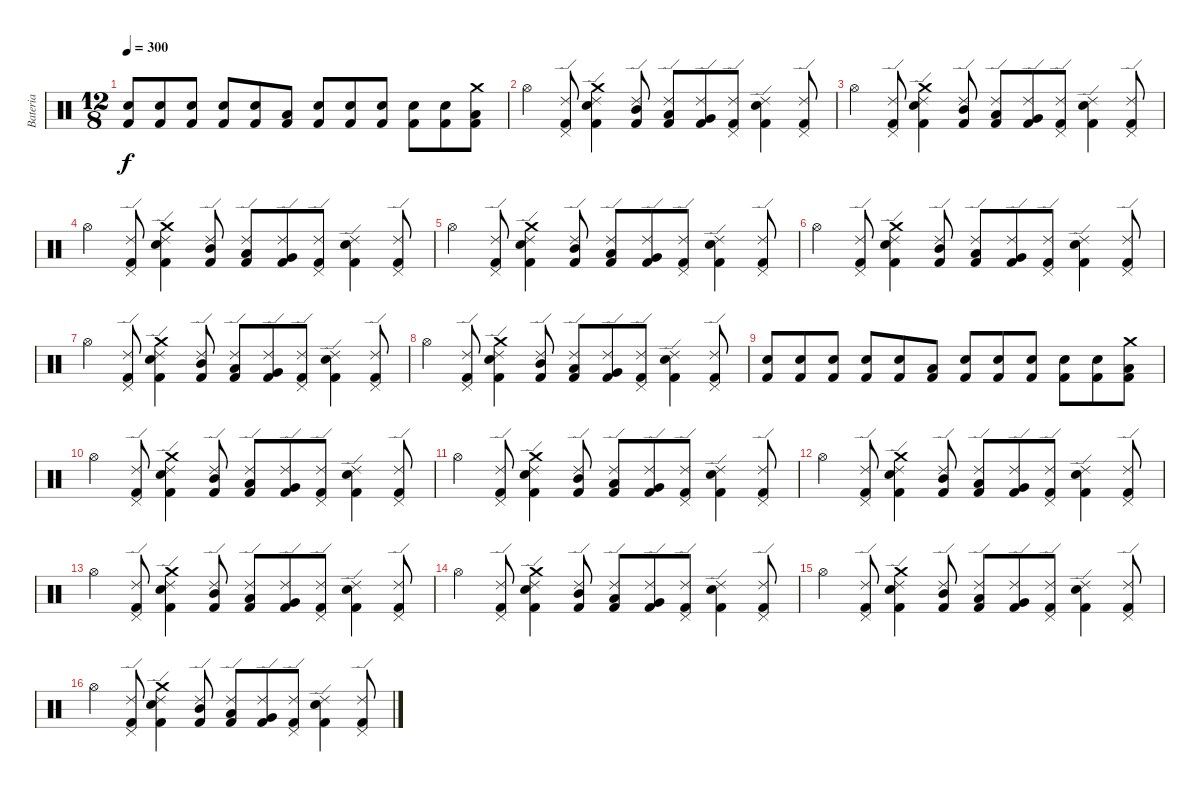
\track ("Bateria" "Bateria") {instrument percussion}
\staff {score}
\articulation defaults
\ts (12 8)
\tempo 300
\clef neutral
\ks c
("Snare (hit) 2" "Kick (hit) 2").8{dy f} ("Snare (hit) 2" "Kick (hit) 2").8 ("Snare (hit) 2" "Kick (hit) 2").8 ("Snare (hit) 2" "Kick (hit) 2").8 ("Snare (hit) 2" "Kick (hit) 2").8 ("Low Tom (hit)" "Kick (hit) 2").8 ("Snare (hit) 2" "Kick (hit) 2").8 ("Snare (hit) 2" "Kick (hit) 2").8 ("Snare (hit) 2" "Kick (hit) 2").8 ("Snare (hit) 2" "Kick (hit) 2").8 ("Snare (hit) 2" "Kick (hit) 2").8 ("Crash medium (hit)" "Low Tom (hit)" "Kick (hit) 2").8 |
"Hi-Hat (open)".4 ("Ride (edge) 2" "Pedal Hi-Hat (hit)" "Kick (hit) 2").8 ("Ride (edge) 2" "Crash medium (hit)" "Snare (hit) 2" "Kick (hit) 2").4 ("Ride (edge) 2" "Mid Tom (hit)" "Kick (hit) 2").8 ("Ride (edge) 2" "Low Tom (hit)" "Kick (hit) 2").8 ("Ride (edge) 2" "Very Low Tom (hit)" "Kick (hit) 2").8 ("Ride (edge) 2" "Pedal Hi-Hat (hit)" "Kick (hit) 2").8 ("Ride (edge) 2" "Snare (hit) 2" "Kick (hit) 2").4 ("Ride (edge) 2" "Pedal Hi-Hat (hit)" "Kick (hit) 2").8 |
"Hi-Hat (open)".4 ("Ride (edge) 2" "Pedal Hi-Hat (hit)" "Kick (hit) 2").8 ("Ride (edge) 2" "Crash medium (hit)" "Snare (hit) 2" "Kick (hit) 2").4 ("Ride (edge) 2" "Mid Tom (hit)" "Kick (hit) 2").8 ("Ride (edge) 2" "Low Tom (hit)" "Kick (hit) 2").8 ("Ride (edge) 2" "Very Low Tom (hit)" "Kick (hit) 2").8 ("Ride (edge) 2" "Pedal Hi-Hat (hit)" "Kick (hit) 2").8 ("Ride (edge) 2" "Snare (hit) 2" "Kick (hit) 2").4 ("Ride (edge) 2" "Pedal Hi-Hat (hit)" "Kick (hit) 2").8 |
"Hi-Hat (open)".4 ("Ride (edge) 2" "Pedal Hi-Hat (hit)" "Kick (hit) 2").8 ("Ride (edge) 2" "Crash medium (hit)" "Snare (hit) 2" "Kick (hit) 2").4 ("Ride (edge) 2" "Mid Tom (hit)" "Kick (hit) 2").8 ("Ride (edge) 2" "Low Tom (hit)" "Kick (hit) 2").8 ("Ride (edge) 2" "Very Low Tom (hit)" "Kick (hit) 2").8 ("Ride (edge) 2" "Pedal Hi-Hat (hit)" "Kick (hit) 2").8 ("Ride (edge) 2" "Snare (hit) 2" "Kick (hit) 2").4 ("Ride (edge) 2" "Pedal Hi-Hat (hit)" "Kick (hit) 2").8 |
"Hi-Hat (open)".4 ("Ride (edge) 2" "Pedal Hi-Hat (hit)" "Kick (hit) 2").8 ("Ride (edge) 2" "Crash medium (hit)" "Snare (hit) 2" "Kick (hit) 2").4 ("Ride (edge) 2" "Mid Tom (hit)" "Kick (hit) 2").8 ("Ride (edge) 2" "Low Tom (hit)" "Kick (hit) 2").8 ("Ride (edge) 2" "Very Low Tom (hit)" "Kick (hit) 2").8 ("Ride (edge) 2" "Pedal Hi-Hat (hit)" "Kick (hit) 2").8 ("Ride (edge) 2" "Snare (hit) 2" "Kick (hit) 2").4 ("Ride (edge) 2" "Pedal Hi-Hat (hit)" "Kick (hit) 2").8 |
"Hi-Hat (open)".4 ("Ride (edge) 2" "Pedal Hi-Hat (hit)" "Kick (hit) 2").8 ("Ride (edge) 2" "Crash medium (hit)" "Snare (hit) 2" "Kick (hit) 2").4 ("Ride (edge) 2" "Mid Tom (hit)" "Kick (hit) 2").8 ("Ride (edge) 2" "Low Tom (hit)" "Kick (hit) 2").8 ("Ride (edge) 2" "Very Low Tom (hit)" "Kick (hit) 2").8 ("Ride (edge) 2" "Pedal Hi-Hat (hit)" "Kick (hit) 2").8 ("Ride (edge) 2" "Snare (hit) 2" "Kick (hit) 2").4 ("Ride (edge) 2" "Pedal Hi-Hat (hit)" "Kick (hit) 2").8 |
"Hi-Hat (open)".4 ("Ride (edge) 2" "Pedal Hi-Hat (hit)" "Kick (hit) 2").8 ("Ride (edge) 2" "Crash medium (hit)" "Snare (hit) 2" "Kick (hit) 2").4 ("Ride (edge) 2" "Mid Tom (hit)" "Kick (hit) 2").8 ("Ride (edge) 2" "Low Tom (hit)" "Kick (hit) 2").8 ("Ride (edge) 2" "Very Low Tom (hit)" "Kick (hit) 2").8 ("Ride (edge) 2" "Pedal Hi-Hat (hit)" "Kick (hit) 2").8 ("Ride (edge) 2" "Snare (hit) 2" "Kick (hit) 2").4 ("Ride (edge) 2" "Pedal Hi-Hat (hit)" "Kick (hit) 2").8 |
"Hi-Hat (open)".4 ("Ride (edge) 2" "Pedal Hi-Hat (hit)" "Kick (hit) 2").8 ("Ride (edge) 2" "Crash medium (hit)" "Snare (hit) 2" "Kick (hit) 2").4 ("Ride (edge) 2" "Mid Tom (hit)" "Kick (hit) 2").8 ("Ride (edge) 2" "Low Tom (hit)" "Kick (hit) 2").8 ("Ride (edge) 2" "Very Low Tom (hit)" "Kick (hit) 2").8 ("Ride (edge) 2" "Pedal Hi-Hat (hit)" "Kick (hit) 2").8 ("Ride (edge) 2" "Snare (hit) 2" "Kick (hit) 2").4 ("Ride (edge) 2" "Pedal Hi-Hat (hit)" "Kick (hit) 2").8 |
("Snare (hit) 2" "Kick (hit) 2").8 ("Snare (hit) 2" "Kick (hit) 2").8 ("Snare (hit) 2" "Kick (hit) 2").8 ("Snare (hit) 2" "Kick (hit) 2").8 ("Snare (hit) 2" "Kick (hit) 2").8 ("Low Tom (hit)" "Kick (hit) 2").8 ("Snare (hit) 2" "Kick (hit) 2").8 ("Snare (hit) 2" "Kick (hit) 2").8 ("Snare (hit) 2" "Kick (hit) 2").8 ("Snare (hit) 2" "Kick (hit) 2").8 ("Snare (hit) 2" "Kick (hit) 2").8 ("Crash medium (hit)" "Low Tom (hit)" "Kick (hit) 2").8 |
"Hi-Hat (open)".4 ("Ride (edge) 2" "Pedal Hi-Hat (hit)" "Kick (hit) 2").8 ("Ride (edge) 2" "Crash medium (hit)" "Snare (hit) 2" "Kick (hit) 2").4 ("Ride (edge) 2" "Mid Tom (hit)" "Kick (hit) 2").8 ("Ride (edge) 2" "Low Tom (hit)" "Kick (hit) 2").8 ("Ride (edge) 2" "Very Low Tom (hit)" "Kick (hit) 2").8 ("Ride (edge) 2" "Pedal Hi-Hat (hit)" "Kick (hit) 2").8 ("Ride (edge) 2" "Snare (hit) 2" "Kick (hit) 2").4 ("Ride (edge) 2" "Pedal Hi-Hat (hit)" "Kick (hit) 2").8 |
"Hi-Hat (open)".4 ("Ride (edge) 2" "Pedal Hi-Hat (hit)" "Kick (hit) 2").8 ("Ride (edge) 2" "Crash medium (hit)" "Snare (hit) 2" "Kick (hit) 2").4 ("Ride (edge) 2" "Mid Tom (hit)" "Kick (hit) 2").8 ("Ride (edge) 2" "Low Tom (hit)" "Kick (hit) 2").8 ("Ride (edge) 2" "Very Low Tom (hit)" "Kick (hit) 2").8 ("Ride (edge) 2" "Pedal Hi-Hat (hit)" "Kick (hit) 2").8 ("Ride (edge) 2" "Snare (hit) 2" "Kick (hit) 2").4 ("Ride (edge) 2" "Pedal Hi-Hat (hit)" "Kick (hit) 2").8 |
"Hi-Hat (open)".4 ("Ride (edge) 2" "Pedal Hi-Hat (hit)" "Kick (hit) 2").8 ("Ride (edge) 2" "Crash medium (hit)" "Snare (hit) 2" "Kick (hit) 2").4 ("Ride (edge) 2" "Mid Tom (hit)" "Kick (hit) 2").8 ("Ride (edge) 2" "Low Tom (hit)" "Kick (hit) 2").8 ("Ride (edge) 2" "Very Low Tom (hit)" "Kick (hit) 2").8 ("Ride (edge) 2" "Pedal Hi-Hat (hit)" "Kick (hit) 2").8 ("Ride (edge) 2" "Snare (hit) 2" "Kick (hit) 2").4 ("Ride (edge) 2" "Pedal Hi-Hat (hit)" "Kick (hit) 2").8 |
"Hi-Hat (open)".4 ("Ride (edge) 2" "Pedal Hi-Hat (hit)" "Kick (hit) 2").8 ("Ride (edge) 2" "Crash medium (hit)" "Snare (hit) 2" "Kick (hit) 2").4 ("Ride (edge) 2" "Mid Tom (hit)" "Kick (hit) 2").8 ("Ride (edge) 2" "Low Tom (hit)" "Kick (hit) 2").8 ("Ride (edge) 2" "Very Low Tom (hit)" "Kick (hit) 2").8 ("Ride (edge) 2" "Pedal Hi-Hat (hit)" "Kick (hit) 2").8 ("Ride (edge) 2" "Snare (hit) 2" "Kick (hit) 2").4 ("Ride (edge) 2" "Pedal Hi-Hat (hit)" "Kick (hit) 2").8 |
"Hi-Hat (open)".4 ("Ride (edge) 2" "Pedal Hi-Hat (hit)" "Kick (hit) 2").8 ("Ride (edge) 2" "Crash medium (hit)" "Snare (hit) 2" "Kick (hit) 2").4 ("Ride (edge) 2" "Mid Tom (hit)" "Kick (hit) 2").8 ("Ride (edge) 2" "Low Tom (hit)" "Kick (hit) 2").8 ("Ride (edge) 2" "Very Low Tom (hit)" "Kick (hit) 2").8 ("Ride (edge) 2" "Pedal Hi-Hat (hit)" "Kick (hit) 2").8 ("Ride (edge) 2" "Snare (hit) 2" "Kick (hit) 2").4 ("Ride (edge) 2" "Pedal Hi-Hat (hit)" "Kick (hit) 2").8 |
"Hi-Hat (open)".4 ("Ride (edge) 2" "Pedal Hi-Hat (hit)" "Kick (hit) 2").8 ("Ride (edge) 2" "Crash medium (hit)" "Snare (hit) 2" "Kick (hit) 2").4 ("Ride (edge) 2" "Mid Tom (hit)" "Kick (hit) 2").8 ("Ride (edge) 2" "Low Tom (hit)" "Kick (hit) 2").8 ("Ride (edge) 2" "Very Low Tom (hit)" "Kick (hit) 2").8 ("Ride (edge) 2" "Pedal Hi-Hat (hit)" "Kick (hit) 2").8 ("Ride (edge) 2" "Snare (hit) 2" "Kick (hit) 2").4 ("Ride (edge) 2" "Pedal Hi-Hat (hit)" "Kick (hit) 2").8 |
"Hi-Hat (open)".4 ("Ride (edge) 2" "Pedal Hi-Hat (hit)" "Kick (hit) 2").8 ("Ride (edge) 2" "Crash medium (hit)" "Snare (hit) 2" "Kick (hit) 2").4 ("Ride (edge) 2" "Mid Tom (hit)" "Kick (hit) 2").8 ("Ride (edge) 2" "Low Tom (hit)" "Kick (hit) 2").8 ("Ride (edge) 2" "Very Low Tom (hit)" "Kick (hit) 2").8 ("Ride (edge) 2" "Pedal Hi-Hat (hit)" "Kick (hit) 2").8 ("Ride (edge) 2" "Snare (hit) 2" "Kick (hit) 2").4 ("Ride (edge) 2" "Pedal Hi-Hat (hit)" "Kick (hit) 2").8
